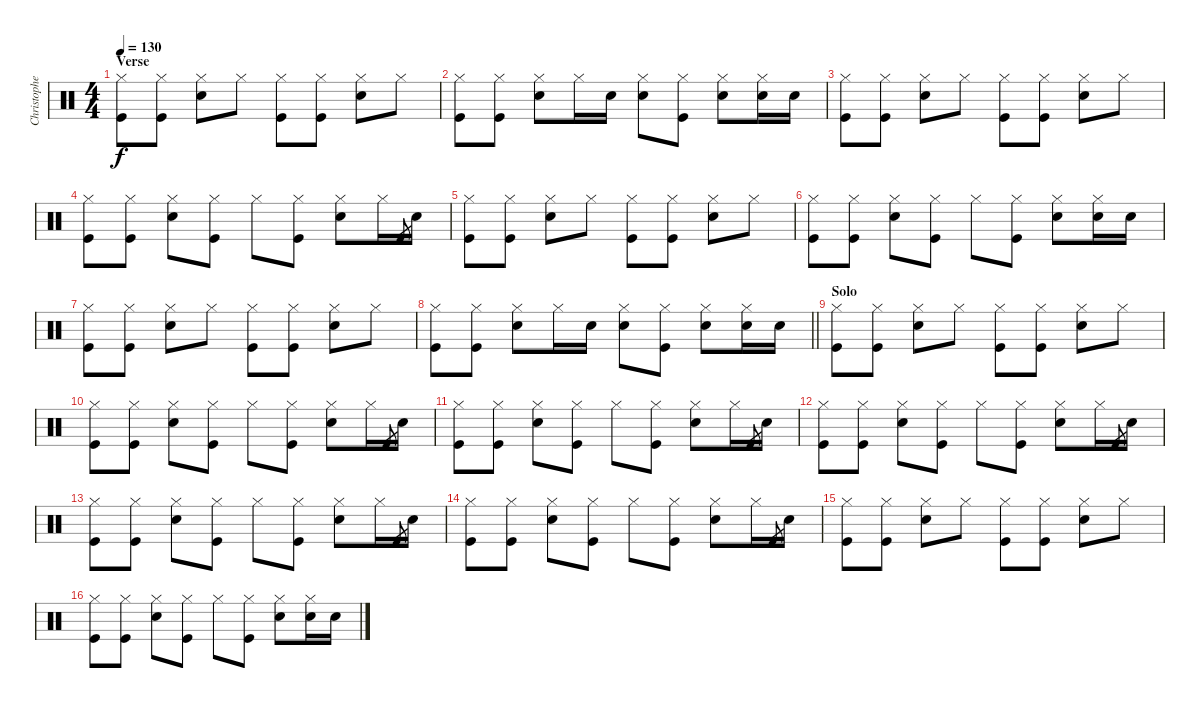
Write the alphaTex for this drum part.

\track ("Christopher - Drums" "Christophe") {instrument percussion}
\staff {score}
\articulation defaults
\ts (4 4)
\section ("" "Verse")
\tempo 130
\clef neutral
\ks c
("Hi-Hat (closed)" "Kick (hit)").8{dy f} ("Hi-Hat (closed)" "Kick (hit)").8 ("Hi-Hat (closed)" "Snare (hit) 2").8 "Hi-Hat (closed)".8 ("Hi-Hat (closed)" "Kick (hit)").8 ("Hi-Hat (closed)" "Kick (hit)").8 ("Hi-Hat (closed)" "Snare (hit) 2").8 "Hi-Hat (closed)".8 |
("Hi-Hat (closed)" "Kick (hit)").8 ("Hi-Hat (closed)" "Kick (hit)").8 ("Hi-Hat (closed)" "Snare (hit) 2").8 "Hi-Hat (closed)".16 "Snare (hit) 2".16 ("Hi-Hat (closed)" "Snare (hit) 2").8 ("Hi-Hat (closed)" "Kick (hit)").8 ("Hi-Hat (closed)" "Snare (hit) 2").8 ("Hi-Hat (closed)" "Snare (hit) 2").16 "Snare (hit) 2".16 |
("Hi-Hat (closed)" "Kick (hit)").8 ("Hi-Hat (closed)" "Kick (hit)").8 ("Hi-Hat (closed)" "Snare (hit) 2").8 "Hi-Hat (closed)".8 ("Hi-Hat (closed)" "Kick (hit)").8 ("Hi-Hat (closed)" "Kick (hit)").8 ("Hi-Hat (closed)" "Snare (hit) 2").8 "Hi-Hat (closed)".8 |
("Hi-Hat (closed)" "Kick (hit)").8 ("Hi-Hat (closed)" "Kick (hit)").8 ("Hi-Hat (closed)" "Snare (hit) 2").8 ("Hi-Hat (closed)" "Kick (hit)").8 "Hi-Hat (closed)".8 ("Hi-Hat (closed)" "Kick (hit)").8 ("Hi-Hat (closed)" "Snare (hit) 2").8 "Hi-Hat (closed)".16 "Kick (hit)".8{gr} "Snare (hit) 2".16 |
("Hi-Hat (closed)" "Kick (hit)").8 ("Hi-Hat (closed)" "Kick (hit)").8 ("Hi-Hat (closed)" "Snare (hit) 2").8 "Hi-Hat (closed)".8 ("Hi-Hat (closed)" "Kick (hit)").8 ("Hi-Hat (closed)" "Kick (hit)").8 ("Hi-Hat (closed)" "Snare (hit) 2").8 "Hi-Hat (closed)".8 |
("Hi-Hat (closed)" "Kick (hit)").8 ("Hi-Hat (closed)" "Kick (hit)").8 ("Hi-Hat (closed)" "Snare (hit) 2").8 ("Hi-Hat (closed)" "Kick (hit)").8 "Hi-Hat (closed)".8 ("Hi-Hat (closed)" "Kick (hit)").8 ("Hi-Hat (closed)" "Snare (hit) 2").8 ("Hi-Hat (closed)" "Snare (hit) 2").16 "Snare (hit) 2".16 |
("Hi-Hat (closed)" "Kick (hit)").8 ("Hi-Hat (closed)" "Kick (hit)").8 ("Hi-Hat (closed)" "Snare (hit) 2").8 "Hi-Hat (closed)".8 ("Hi-Hat (closed)" "Kick (hit)").8 ("Hi-Hat (closed)" "Kick (hit)").8 ("Hi-Hat (closed)" "Snare (hit) 2").8 "Hi-Hat (closed)".8 |
\barLineRight lightlight
("Hi-Hat (closed)" "Kick (hit)").8 ("Hi-Hat (closed)" "Kick (hit)").8 ("Hi-Hat (closed)" "Snare (hit) 2").8 "Hi-Hat (closed)".16 "Snare (hit) 2".16 ("Hi-Hat (closed)" "Snare (hit) 2").8 ("Hi-Hat (closed)" "Kick (hit)").8 ("Hi-Hat (closed)" "Snare (hit) 2").8 ("Hi-Hat (closed)" "Snare (hit) 2").16 "Snare (hit) 2".16 |
\section ("" "Solo")
("Hi-Hat (closed)" "Kick (hit)").8 ("Hi-Hat (closed)" "Kick (hit)").8 ("Hi-Hat (closed)" "Snare (hit) 2").8 "Hi-Hat (closed)".8 ("Hi-Hat (closed)" "Kick (hit)").8 ("Hi-Hat (closed)" "Kick (hit)").8 ("Hi-Hat (closed)" "Snare (hit) 2").8 "Hi-Hat (closed)".8 |
("Hi-Hat (closed)" "Kick (hit)").8 ("Hi-Hat (closed)" "Kick (hit)").8 ("Hi-Hat (closed)" "Snare (hit) 2").8 ("Hi-Hat (closed)" "Kick (hit)").8 "Hi-Hat (closed)".8 ("Hi-Hat (closed)" "Kick (hit)").8 ("Hi-Hat (closed)" "Snare (hit) 2").8 "Hi-Hat (closed)".16 "Kick (hit)".8{gr} "Snare (hit) 2".16 |
("Hi-Hat (closed)" "Kick (hit)").8 ("Hi-Hat (closed)" "Kick (hit)").8 ("Hi-Hat (closed)" "Snare (hit) 2").8 ("Hi-Hat (closed)" "Kick (hit)").8 "Hi-Hat (closed)".8 ("Hi-Hat (closed)" "Kick (hit)").8 ("Hi-Hat (closed)" "Snare (hit) 2").8 "Hi-Hat (closed)".16 "Kick (hit)".8{gr} "Snare (hit) 2".16 |
("Hi-Hat (closed)" "Kick (hit)").8 ("Hi-Hat (closed)" "Kick (hit)").8 ("Hi-Hat (closed)" "Snare (hit) 2").8 ("Hi-Hat (closed)" "Kick (hit)").8 "Hi-Hat (closed)".8 ("Hi-Hat (closed)" "Kick (hit)").8 ("Hi-Hat (closed)" "Snare (hit) 2").8 "Hi-Hat (closed)".16 "Kick (hit)".8{gr} "Snare (hit) 2".16 |
("Hi-Hat (closed)" "Kick (hit)").8 ("Hi-Hat (closed)" "Kick (hit)").8 ("Hi-Hat (closed)" "Snare (hit) 2").8 ("Hi-Hat (closed)" "Kick (hit)").8 "Hi-Hat (closed)".8 ("Hi-Hat (closed)" "Kick (hit)").8 ("Hi-Hat (closed)" "Snare (hit) 2").8 "Hi-Hat (closed)".16 "Kick (hit)".8{gr} "Snare (hit) 2".16 |
("Hi-Hat (closed)" "Kick (hit)").8 ("Hi-Hat (closed)" "Kick (hit)").8 ("Hi-Hat (closed)" "Snare (hit) 2").8 ("Hi-Hat (closed)" "Kick (hit)").8 "Hi-Hat (closed)".8 ("Hi-Hat (closed)" "Kick (hit)").8 ("Hi-Hat (closed)" "Snare (hit) 2").8 "Hi-Hat (closed)".16 "Kick (hit)".8{gr} "Snare (hit) 2".16 |
("Hi-Hat (closed)" "Kick (hit)").8 ("Hi-Hat (closed)" "Kick (hit)").8 ("Hi-Hat (closed)" "Snare (hit) 2").8 "Hi-Hat (closed)".8 ("Hi-Hat (closed)" "Kick (hit)").8 ("Hi-Hat (closed)" "Kick (hit)").8 ("Hi-Hat (closed)" "Snare (hit) 2").8 "Hi-Hat (closed)".8 |
("Hi-Hat (closed)" "Kick (hit)").8 ("Hi-Hat (closed)" "Kick (hit)").8 ("Hi-Hat (closed)" "Snare (hit) 2").8 ("Hi-Hat (closed)" "Kick (hit)").8 "Hi-Hat (closed)".8 ("Hi-Hat (closed)" "Kick (hit)").8 ("Hi-Hat (closed)" "Snare (hit) 2").8 ("Hi-Hat (closed)" "Snare (hit) 2").16 "Snare (hit) 2".16
